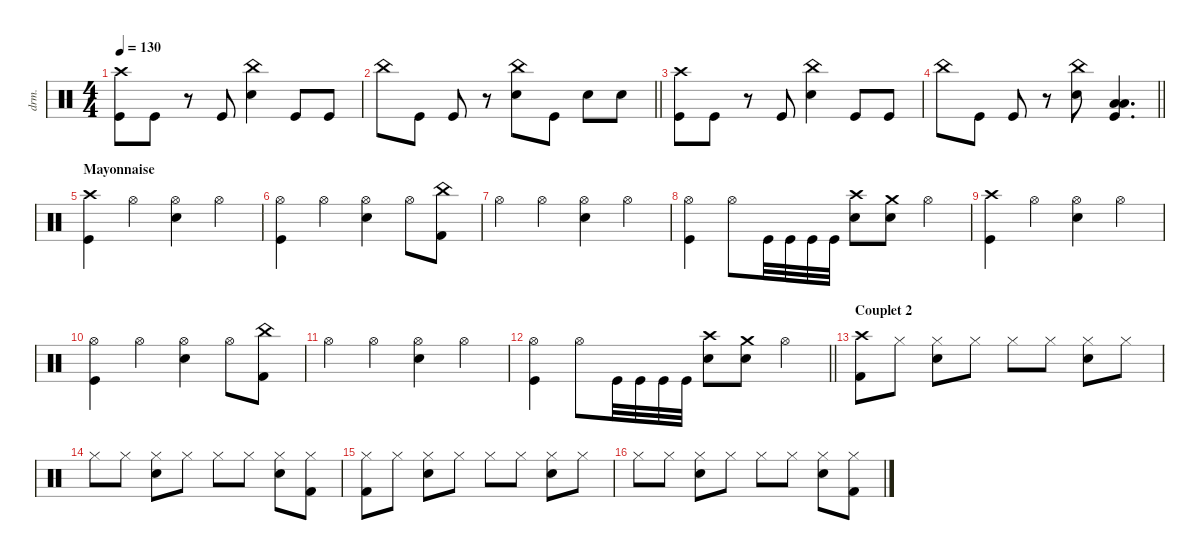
\defaultSystemsLayout 4
\hideDynamics
\bracketExtendMode nobrackets
\otherSystemsTrackNameOrientation horizontal
\track ("Manouche" "drm.") {instrument percussion}
\staff {score}
\articulation defaults
\ts (4 4)
\tempo 130
\clef neutral
\ks c
("Crash high (hit)" "Kick (hit)").8{dy f} "Kick (hit)".8 r.8 "Kick (hit)".8 ("China (hit)" "Snare (hit) 2").4 "Kick (hit)".8 "Kick (hit)".8 |
\barLineRight lightlight "China (hit)".8 "Kick (hit)".8 "Kick (hit)".8
r.8 ("China (hit)" "Snare (hit) 2").8 "Kick (hit)".8 "Snare (hit) 2".8 "Snare (hit) 2".8 |
("Crash high (hit)" "Kick (hit)").8 "Kick (hit)".8 r.8 "Kick (hit)".8 ("China (hit)" "Snare (hit) 2").4 "Kick (hit)".8 "Kick (hit)".8 |
\barLineRight lightlight "China (hit)".8 "Kick (hit)".8 "Kick (hit)".8
r.8 ("China (hit)" "Snare (hit) 2").8 ("Low Tom (hit)" "Kick (hit)" "Low Floor Tom (hit)").4{d dy ff} |
\section ("" "Mayonnaise")
("Crash high (hit)" "Kick (hit)").4{dy f} "Hi-Hat (open)".4 ("Hi-Hat (open)" "Snare (hit) 2").4 "Hi-Hat (open)".4 |
("Hi-Hat (open)" "Kick (hit)").4 "Hi-Hat (open)".4 ("Hi-Hat (open)" "Snare (hit) 2").4 "Hi-Hat (open)".8 ("China (hit)" "Kick (hit) 2").8 |
"Hi-Hat (open)".4 "Hi-Hat (open)".4 ("Hi-Hat (open)" "Snare (hit) 2").4 "Hi-Hat (open)".4 |
("Hi-Hat (open)" "Kick (hit)").4 "Hi-Hat (open)".8 "Kick (hit)".32 "Kick (hit)".32 "Kick (hit)".32 "Kick (hit)".32 ("Snare (hit) 2" "Crash high (hit)").8 ("Crash medium (hit)" "Snare (hit) 2").8 "Hi-Hat (open)".4 |
("Crash high (hit)" "Kick (hit)").4 "Hi-Hat (open)".4 ("Hi-Hat (open)" "Snare (hit) 2").4 "Hi-Hat (open)".4 |
("Hi-Hat (open)" "Kick (hit)").4 "Hi-Hat (open)".4 ("Hi-Hat (open)" "Snare (hit) 2").4 "Hi-Hat (open)".8 ("China (hit)" "Kick (hit) 2").8 |
"Hi-Hat (open)".4 "Hi-Hat (open)".4 ("Hi-Hat (open)" "Snare (hit) 2").4 "Hi-Hat (open)".4 |
\barLineRight lightlight
("Hi-Hat (open)" "Kick (hit)").4 "Hi-Hat (open)".8 "Kick (hit)".32 "Kick (hit)".32 "Kick (hit)".32 "Kick (hit)".32 ("Snare (hit) 2" "Crash high (hit)").8 ("Crash medium (hit)" "Snare (hit) 2").8 "Hi-Hat (open)".4 |
\section ("" "Couplet 2")
("Crash high (hit)" "Kick (hit) 2").8 "Hi-Hat (closed)".8{dy mp} ("Hi-Hat (closed)" "Snare (hit) 2").8{dy f} "Hi-Hat (closed)".8{dy mp} "Hi-Hat (closed)".8{dy f} "Hi-Hat (closed)".8{dy mp} ("Hi-Hat (closed)" "Snare (hit) 2").8{dy f} "Hi-Hat (closed)".8{dy mp} |
"Hi-Hat (closed)".8{dy f} "Hi-Hat (closed)".8{dy mp} ("Hi-Hat (closed)" "Snare (hit) 2").8{dy f} "Hi-Hat (closed)".8{dy mp} "Hi-Hat (closed)".8{dy f} "Hi-Hat (closed)".8{dy mp} ("Hi-Hat (closed)" "Snare (hit) 2").8{dy f} ("Hi-Hat (closed)" "Kick (hit) 2").8{dy mp} |
("Hi-Hat (closed)" "Kick (hit) 2").8 "Hi-Hat (closed)".8 ("Hi-Hat (closed)" "Snare (hit) 2").8{dy f} "Hi-Hat (closed)".8{dy mp} "Hi-Hat (closed)".8{dy f} "Hi-Hat (closed)".8{dy mp} ("Hi-Hat (closed)" "Snare (hit) 2").8{dy f} "Hi-Hat (closed)".8{dy mp} |
"Hi-Hat (closed)".8{dy f} "Hi-Hat (closed)".8{dy mp} ("Hi-Hat (closed)" "Snare (hit) 2").8{dy f} "Hi-Hat (closed)".8{dy mp} "Hi-Hat (closed)".8{dy f} "Hi-Hat (closed)".8{dy mp} ("Hi-Hat (closed)" "Snare (hit) 2").8{dy f} ("Hi-Hat (closed)" "Kick (hit) 2").8{dy mp}
